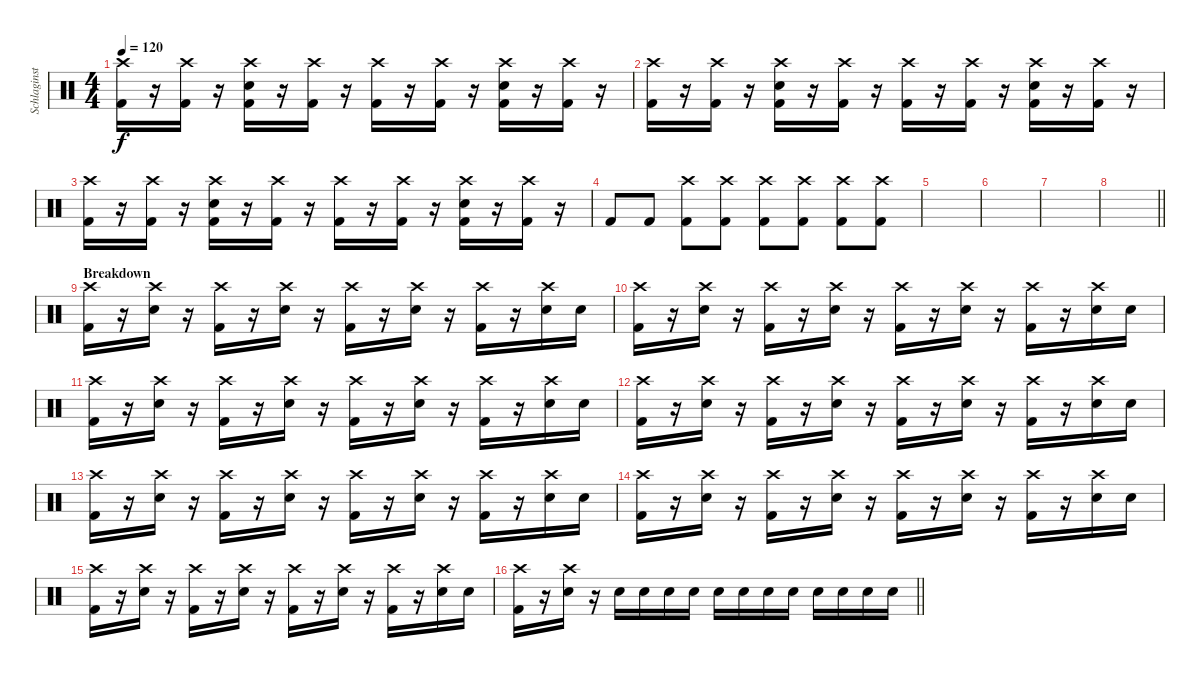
\track ("Schlaginstrumente - Auswahl" "Schlaginst") {instrument percussion}
\staff {score}
\articulation defaults
\ts (4 4)
\tempo 120
\clef neutral
\ks c
("Kick (hit) 2" "Crash high (hit)").16{dy f} r.16 ("Kick (hit) 2" "Crash high (hit)").16 r.16 ("Snare (hit) 2" "Kick (hit) 2" "Crash high (hit)").16 r.16 ("Kick (hit) 2" "Crash high (hit)").16 r.16 ("Kick (hit) 2" "Crash high (hit)").16 r.16 ("Kick (hit) 2" "Crash high (hit)").16 r.16 ("Snare (hit) 2" "Kick (hit) 2" "Crash high (hit)").16 r.16 ("Kick (hit) 2" "Crash high (hit)").16 r.16 |
("Kick (hit) 2" "Crash high (hit)").16 r.16 ("Kick (hit) 2" "Crash high (hit)").16 r.16 ("Snare (hit) 2" "Kick (hit) 2" "Crash high (hit)").16 r.16 ("Kick (hit) 2" "Crash high (hit)").16 r.16 ("Kick (hit) 2" "Crash high (hit)").16 r.16 ("Kick (hit) 2" "Crash high (hit)").16 r.16 ("Snare (hit) 2" "Kick (hit) 2" "Crash high (hit)").16 r.16 ("Kick (hit) 2" "Crash high (hit)").16 r.16 |
("Kick (hit) 2" "Crash high (hit)").16 r.16 ("Kick (hit) 2" "Crash high (hit)").16 r.16 ("Snare (hit) 2" "Kick (hit) 2" "Crash high (hit)").16 r.16 ("Kick (hit) 2" "Crash high (hit)").16 r.16 ("Kick (hit) 2" "Crash high (hit)").16 r.16 ("Kick (hit) 2" "Crash high (hit)").16 r.16 ("Snare (hit) 2" "Kick (hit) 2" "Crash high (hit)").16 r.16 ("Kick (hit) 2" "Crash high (hit)").16 r.16 |
"Kick (hit) 2".8{volume 9} "Kick (hit) 2".8{volume 13} ("Kick (hit) 2" "Crash high (hit)").8 ("Kick (hit) 2" "Crash high (hit)").8 ("Kick (hit) 2" "Crash high (hit)").8 ("Kick (hit) 2" "Crash high (hit)").8 ("Kick (hit) 2" "Crash high (hit)").8 ("Kick (hit) 2" "Crash high (hit)").8 |
|
|
|
\barLineRight lightlight
|
\section ("" "Breakdown")
("Kick (hit) 2" "Crash high (hit)").16 r.16 ("Snare (hit) 2" "Crash high (hit)").16 r.16 ("Kick (hit) 2" "Crash high (hit)").16 r.16 ("Snare (hit) 2" "Crash high (hit)").16 r.16 ("Kick (hit) 2" "Crash high (hit)").16 r.16 ("Snare (hit) 2" "Crash high (hit)").16 r.16 ("Kick (hit) 2" "Crash high (hit)").16 r.16 ("Snare (hit) 2" "Crash high (hit)").16 "Snare (hit) 2".16 |
("Kick (hit) 2" "Crash high (hit)").16 r.16 ("Snare (hit) 2" "Crash high (hit)").16 r.16 ("Kick (hit) 2" "Crash high (hit)").16 r.16 ("Snare (hit) 2" "Crash high (hit)").16 r.16 ("Kick (hit) 2" "Crash high (hit)").16 r.16 ("Snare (hit) 2" "Crash high (hit)").16 r.16 ("Kick (hit) 2" "Crash high (hit)").16 r.16 ("Snare (hit) 2" "Crash high (hit)").16 "Snare (hit) 2".16 |
("Kick (hit) 2" "Crash high (hit)").16 r.16 ("Snare (hit) 2" "Crash high (hit)").16 r.16 ("Kick (hit) 2" "Crash high (hit)").16 r.16 ("Snare (hit) 2" "Crash high (hit)").16 r.16 ("Kick (hit) 2" "Crash high (hit)").16 r.16 ("Snare (hit) 2" "Crash high (hit)").16 r.16 ("Kick (hit) 2" "Crash high (hit)").16 r.16 ("Snare (hit) 2" "Crash high (hit)").16 "Snare (hit) 2".16 |
("Kick (hit) 2" "Crash high (hit)").16 r.16 ("Snare (hit) 2" "Crash high (hit)").16 r.16 ("Kick (hit) 2" "Crash high (hit)").16 r.16 ("Snare (hit) 2" "Crash high (hit)").16 r.16 ("Kick (hit) 2" "Crash high (hit)").16 r.16 ("Snare (hit) 2" "Crash high (hit)").16 r.16 ("Kick (hit) 2" "Crash high (hit)").16 r.16 ("Snare (hit) 2" "Crash high (hit)").16 "Snare (hit) 2".16 |
("Kick (hit) 2" "Crash high (hit)").16 r.16 ("Snare (hit) 2" "Crash high (hit)").16 r.16 ("Kick (hit) 2" "Crash high (hit)").16 r.16 ("Snare (hit) 2" "Crash high (hit)").16 r.16 ("Kick (hit) 2" "Crash high (hit)").16 r.16 ("Snare (hit) 2" "Crash high (hit)").16 r.16 ("Kick (hit) 2" "Crash high (hit)").16 r.16 ("Snare (hit) 2" "Crash high (hit)").16 "Snare (hit) 2".16 |
("Kick (hit) 2" "Crash high (hit)").16 r.16 ("Snare (hit) 2" "Crash high (hit)").16 r.16 ("Kick (hit) 2" "Crash high (hit)").16 r.16 ("Snare (hit) 2" "Crash high (hit)").16 r.16 ("Kick (hit) 2" "Crash high (hit)").16 r.16 ("Snare (hit) 2" "Crash high (hit)").16 r.16 ("Kick (hit) 2" "Crash high (hit)").16 r.16 ("Snare (hit) 2" "Crash high (hit)").16 "Snare (hit) 2".16 |
("Kick (hit) 2" "Crash high (hit)").16 r.16 ("Snare (hit) 2" "Crash high (hit)").16 r.16 ("Kick (hit) 2" "Crash high (hit)").16 r.16 ("Snare (hit) 2" "Crash high (hit)").16 r.16 ("Kick (hit) 2" "Crash high (hit)").16 r.16 ("Snare (hit) 2" "Crash high (hit)").16 r.16 ("Kick (hit) 2" "Crash high (hit)").16 r.16 ("Snare (hit) 2" "Crash high (hit)").16 "Snare (hit) 2".16 |
\barLineRight lightlight
("Kick (hit) 2" "Crash high (hit)").16 r.16 ("Snare (hit) 2" "Crash high (hit)").16 r.16 "Snare (hit) 2".16 "Snare (hit) 2".16 "Snare (hit) 2".16 "Snare (hit) 2".16 "Snare (hit) 2".16 "Snare (hit) 2".16 "Snare (hit) 2".16 "Snare (hit) 2".16 "Snare (hit) 2".16 "Snare (hit) 2".16 "Snare (hit) 2".16 "Snare (hit) 2".16
